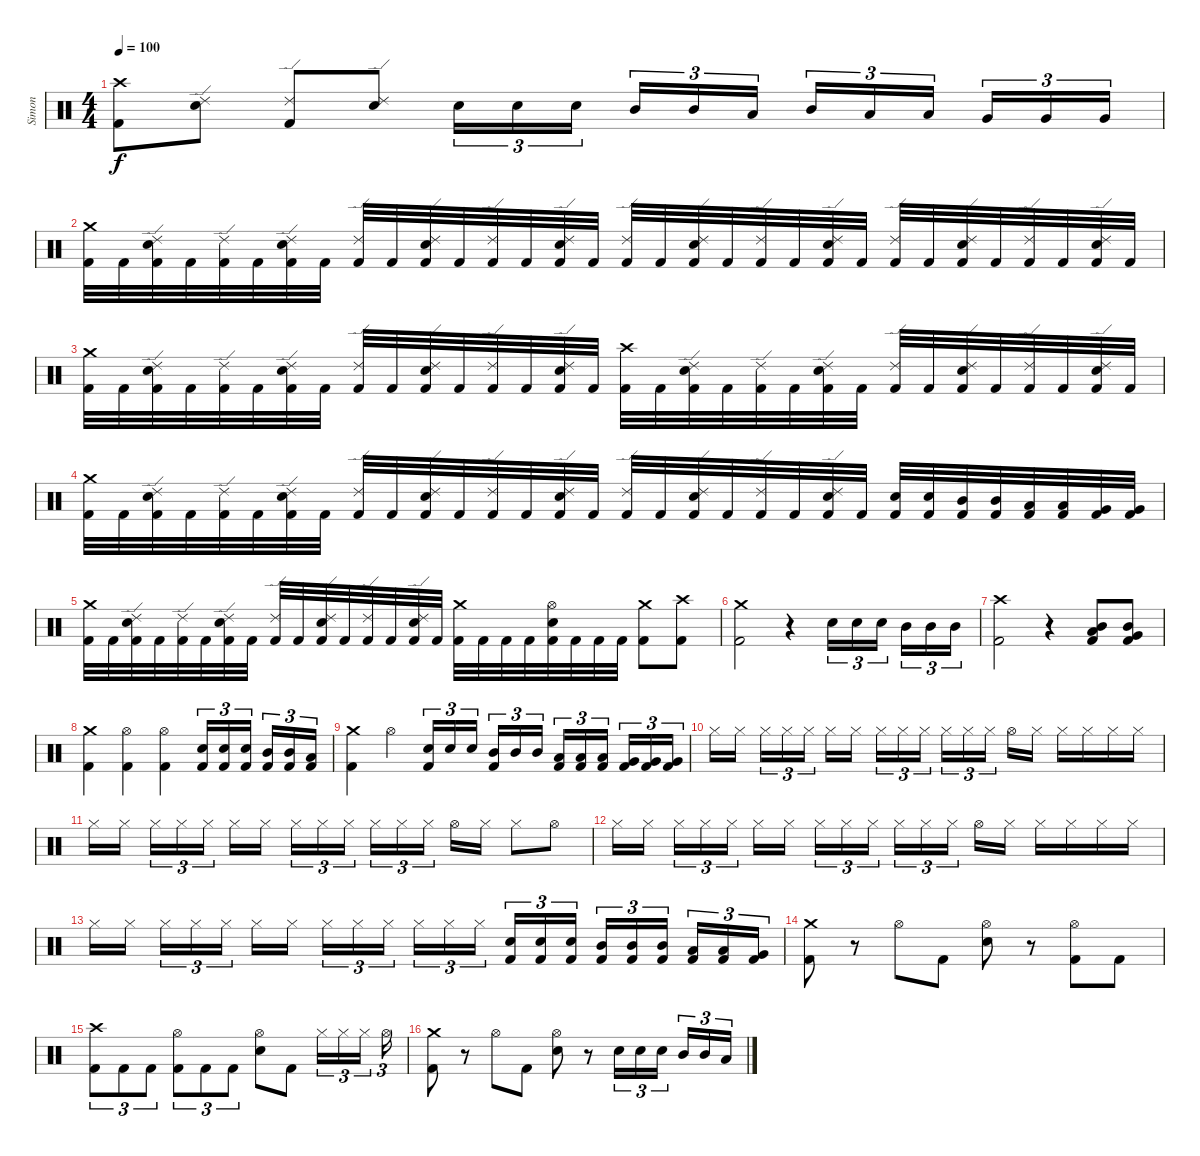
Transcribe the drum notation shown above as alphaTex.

\track ("Simon" "Simon") {instrument percussion}
\staff {score}
\articulation defaults
\ts (4 4)
\tempo 100
\clef neutral
\ks c
("Crash high (hit)" "Kick (hit) 2").8{dy f} ("Ride (edge) 2" "Electric Snare (hit)").8 ("Ride (edge) 2" "Kick (hit) 2").8 ("Ride (edge) 2" "Electric Snare (hit)").8 "Electric Snare (hit)".16{tu (3 2)} "Electric Snare (hit)".16{tu (3 2)} "Electric Snare (hit)".16{tu (3 2) beam splitsecondary} "Mid Tom (hit)".16{tu (3 2)} "Mid Tom (hit)".16{tu (3 2)} "Low Tom (hit)".16{tu (3 2)} "Mid Tom (hit)".16{tu (3 2)} "Low Tom (hit)".16{tu (3 2)} "Low Tom (hit)".16{tu (3 2) beam splitsecondary} "Very Low Tom (hit)".16{tu (3 2)} "Very Low Tom (hit)".16{tu (3 2)} "Very Low Tom (hit)".16{tu (3 2)} |
("Crash medium (hit)" "Kick (hit) 2").32 "Kick (hit) 2".32 ("Ride (edge) 2" "Electric Snare (hit)" "Kick (hit) 2").32 "Kick (hit) 2".32 ("Ride (edge) 2" "Kick (hit) 2").32 "Kick (hit) 2".32 ("Ride (edge) 2" "Electric Snare (hit)" "Kick (hit) 2").32 "Kick (hit) 2".32 ("Ride (edge) 2" "Kick (hit) 2").32 "Kick (hit) 2".32 ("Ride (edge) 2" "Electric Snare (hit)" "Kick (hit) 2").32 "Kick (hit) 2".32 ("Ride (edge) 2" "Kick (hit) 2").32 "Kick (hit) 2".32 ("Ride (edge) 2" "Electric Snare (hit)" "Kick (hit) 2").32 "Kick (hit) 2".32 ("Ride (edge) 2" "Kick (hit) 2").32 "Kick (hit) 2".32 ("Ride (edge) 2" "Electric Snare (hit)" "Kick (hit) 2").32 "Kick (hit) 2".32 ("Ride (edge) 2" "Kick (hit) 2").32 "Kick (hit) 2".32 ("Ride (edge) 2" "Electric Snare (hit)" "Kick (hit) 2").32 "Kick (hit) 2".32 ("Ride (edge) 2" "Kick (hit) 2").32 "Kick (hit) 2".32 ("Ride (edge) 2" "Electric Snare (hit)" "Kick (hit) 2").32 "Kick (hit) 2".32 ("Ride (edge) 2" "Kick (hit) 2").32 "Kick (hit) 2".32 ("Ride (edge) 2" "Electric Snare (hit)" "Kick (hit) 2").32 "Kick (hit) 2".32 |
("Crash medium (hit)" "Kick (hit) 2").32 "Kick (hit) 2".32 ("Ride (edge) 2" "Electric Snare (hit)" "Kick (hit) 2").32 "Kick (hit) 2".32 ("Ride (edge) 2" "Kick (hit) 2").32 "Kick (hit) 2".32 ("Ride (edge) 2" "Electric Snare (hit)" "Kick (hit) 2").32 "Kick (hit) 2".32 ("Ride (edge) 2" "Kick (hit) 2").32 "Kick (hit) 2".32 ("Ride (edge) 2" "Electric Snare (hit)" "Kick (hit) 2").32 "Kick (hit) 2".32 ("Ride (edge) 2" "Kick (hit) 2").32 "Kick (hit) 2".32 ("Ride (edge) 2" "Electric Snare (hit)" "Kick (hit) 2").32 "Kick (hit) 2".32 ("Crash high (hit)" "Kick (hit) 2").32 "Kick (hit) 2".32 ("Ride (edge) 2" "Electric Snare (hit)" "Kick (hit) 2").32 "Kick (hit) 2".32 ("Ride (edge) 2" "Kick (hit) 2").32 "Kick (hit) 2".32 ("Ride (edge) 2" "Electric Snare (hit)" "Kick (hit) 2").32 "Kick (hit) 2".32 ("Ride (edge) 2" "Kick (hit) 2").32 "Kick (hit) 2".32 ("Ride (edge) 2" "Electric Snare (hit)" "Kick (hit) 2").32 "Kick (hit) 2".32 ("Ride (edge) 2" "Kick (hit) 2").32 "Kick (hit) 2".32 ("Ride (edge) 2" "Electric Snare (hit)" "Kick (hit) 2").32 "Kick (hit) 2".32 |
("Crash medium (hit)" "Kick (hit) 2").32 "Kick (hit) 2".32 ("Ride (edge) 2" "Electric Snare (hit)" "Kick (hit) 2").32 "Kick (hit) 2".32 ("Ride (edge) 2" "Kick (hit) 2").32 "Kick (hit) 2".32 ("Ride (edge) 2" "Electric Snare (hit)" "Kick (hit) 2").32 "Kick (hit) 2".32 ("Ride (edge) 2" "Kick (hit) 2").32 "Kick (hit) 2".32 ("Ride (edge) 2" "Electric Snare (hit)" "Kick (hit) 2").32 "Kick (hit) 2".32 ("Ride (edge) 2" "Kick (hit) 2").32 "Kick (hit) 2".32 ("Ride (edge) 2" "Electric Snare (hit)" "Kick (hit) 2").32 "Kick (hit) 2".32 ("Ride (edge) 2" "Kick (hit) 2").32 "Kick (hit) 2".32 ("Ride (edge) 2" "Electric Snare (hit)" "Kick (hit) 2").32 "Kick (hit) 2".32 ("Ride (edge) 2" "Kick (hit) 2").32 "Kick (hit) 2".32 ("Ride (edge) 2" "Electric Snare (hit)" "Kick (hit) 2").32 "Kick (hit) 2".32 ("Electric Snare (hit)" "Kick (hit) 2").32 ("Electric Snare (hit)" "Kick (hit) 2").32 ("Mid Tom (hit)" "Kick (hit) 2").32 ("Mid Tom (hit)" "Kick (hit) 2").32 ("Low Tom (hit)" "Kick (hit) 2").32 ("Low Tom (hit)" "Kick (hit) 2").32 ("Very Low Tom (hit)" "Kick (hit) 2").32 ("Very Low Tom (hit)" "Kick (hit) 2").32 |
("Crash medium (hit)" "Kick (hit) 2").32 "Kick (hit) 2".32 ("Ride (edge) 2" "Electric Snare (hit)" "Kick (hit) 2").32 "Kick (hit) 2".32 ("Ride (edge) 2" "Kick (hit) 2").32 "Kick (hit) 2".32 ("Ride (edge) 2" "Electric Snare (hit)" "Kick (hit) 2").32 "Kick (hit) 2".32 ("Ride (edge) 2" "Kick (hit) 2").32 "Kick (hit) 2".32 ("Ride (edge) 2" "Electric Snare (hit)" "Kick (hit) 2").32 "Kick (hit) 2".32 ("Ride (edge) 2" "Kick (hit) 2").32 "Kick (hit) 2".32 ("Ride (edge) 2" "Electric Snare (hit)" "Kick (hit) 2").32 "Kick (hit) 2".32 ("Crash medium (hit)" "Kick (hit) 2").32 "Kick (hit) 2".32 "Kick (hit) 2".32 "Kick (hit) 2".32 ("Hi-Hat (open)" "Electric Snare (hit)" "Kick (hit) 2").32 "Kick (hit) 2".32 "Kick (hit) 2".32 "Kick (hit) 2".32 ("Crash medium (hit)" "Kick (hit) 2").8 ("Crash high (hit)" "Kick (hit) 2").8 |
("Crash medium (hit)" "Kick (hit) 2").2 r.4 "Electric Snare (hit)".16{tu (3 2)} "Electric Snare (hit)".16{tu (3 2)} "Electric Snare (hit)".16{tu (3 2) beam splitsecondary} "Mid Tom (hit)".16{tu (3 2)} "Mid Tom (hit)".16{tu (3 2)} "Mid Tom (hit)".16{tu (3 2)} |
("Crash high (hit)" "Kick (hit) 2").2 r.4 ("Low Tom (hit)" "Mid Tom (hit)" "Kick (hit) 2").8 ("Very Low Tom (hit)" "Mid Tom (hit)" "Kick (hit) 2").8 |
("Crash medium (hit)" "Kick (hit) 2").4 ("Hi-Hat (open)" "Kick (hit) 2").4 ("Hi-Hat (open)" "Kick (hit) 2").4 ("Electric Snare (hit)" "Kick (hit) 2").16{tu (3 2)} ("Electric Snare (hit)" "Kick (hit) 2").16{tu (3 2)} ("Electric Snare (hit)" "Kick (hit) 2").16{tu (3 2) beam splitsecondary} ("Mid Tom (hit)" "Kick (hit) 2").16{tu (3 2)} ("Mid Tom (hit)" "Kick (hit) 2").16{tu (3 2)} ("Low Tom (hit)" "Kick (hit) 2").16{tu (3 2)} |
("Crash medium (hit)" "Kick (hit) 2").4 "Hi-Hat (open)".4 ("Electric Snare (hit)" "Kick (hit) 2").16{tu (3 2)} "Electric Snare (hit)".16{tu (3 2)} "Electric Snare (hit)".16{tu (3 2) beam splitsecondary} ("Mid Tom (hit)" "Kick (hit) 2").16{tu (3 2)} "Mid Tom (hit)".16{tu (3 2)} "Mid Tom (hit)".16{tu (3 2)} ("Low Tom (hit)" "Kick (hit) 2").16{tu (3 2)} ("Low Tom (hit)" "Kick (hit) 2").16{tu (3 2)} ("Low Tom (hit)" "Kick (hit) 2").16{tu (3 2) beam splitsecondary} ("Very Low Tom (hit)" "Kick (hit) 2").16{tu (3 2)} ("Very Low Tom (hit)" "Kick (hit) 2").16{tu (3 2)} ("Very Low Tom (hit)" "Kick (hit) 2").16{tu (3 2)} |
"Hi-Hat (closed)".16 "Hi-Hat (closed)".16{beam splitsecondary} "Hi-Hat (closed)".16{tu (3 2)} "Hi-Hat (closed)".16{tu (3 2)} "Hi-Hat (closed)".16{tu (3 2)} "Hi-Hat (closed)".16 "Hi-Hat (closed)".16{beam splitsecondary} "Hi-Hat (closed)".16{tu (3 2)} "Hi-Hat (closed)".16{tu (3 2)} "Hi-Hat (closed)".16{tu (3 2)} "Hi-Hat (closed)".16{tu (3 2)} "Hi-Hat (closed)".16{tu (3 2)} "Hi-Hat (closed)".16{tu (3 2) beam splitsecondary} "Hi-Hat (open)".16 "Hi-Hat (closed)".16 "Hi-Hat (closed)".16 "Hi-Hat (closed)".16 "Hi-Hat (closed)".16 "Hi-Hat (closed)".16 |
"Hi-Hat (closed)".16 "Hi-Hat (closed)".16{beam splitsecondary} "Hi-Hat (closed)".16{tu (3 2)} "Hi-Hat (closed)".16{tu (3 2)} "Hi-Hat (closed)".16{tu (3 2)} "Hi-Hat (closed)".16 "Hi-Hat (closed)".16{beam splitsecondary} "Hi-Hat (closed)".16{tu (3 2)} "Hi-Hat (closed)".16{tu (3 2)} "Hi-Hat (closed)".16{tu (3 2)} "Hi-Hat (closed)".16{tu (3 2)} "Hi-Hat (closed)".16{tu (3 2)} "Hi-Hat (closed)".16{tu (3 2) beam splitsecondary} "Hi-Hat (open)".16 "Hi-Hat (closed)".16 "Hi-Hat (closed)".8 "Hi-Hat (open)".8 |
"Hi-Hat (closed)".16 "Hi-Hat (closed)".16{beam splitsecondary} "Hi-Hat (closed)".16{tu (3 2)} "Hi-Hat (closed)".16{tu (3 2)} "Hi-Hat (closed)".16{tu (3 2)} "Hi-Hat (closed)".16 "Hi-Hat (closed)".16{beam splitsecondary} "Hi-Hat (closed)".16{tu (3 2)} "Hi-Hat (closed)".16{tu (3 2)} "Hi-Hat (closed)".16{tu (3 2)} "Hi-Hat (closed)".16{tu (3 2)} "Hi-Hat (closed)".16{tu (3 2)} "Hi-Hat (closed)".16{tu (3 2) beam splitsecondary} "Hi-Hat (open)".16 "Hi-Hat (closed)".16 "Hi-Hat (closed)".16 "Hi-Hat (closed)".16 "Hi-Hat (closed)".16 "Hi-Hat (closed)".16 |
"Hi-Hat (closed)".16 "Hi-Hat (closed)".16{beam splitsecondary} "Hi-Hat (closed)".16{tu (3 2)} "Hi-Hat (closed)".16{tu (3 2)} "Hi-Hat (closed)".16{tu (3 2)} "Hi-Hat (closed)".16 "Hi-Hat (closed)".16{beam splitsecondary} "Hi-Hat (closed)".16{tu (3 2)} "Hi-Hat (closed)".16{tu (3 2)} "Hi-Hat (closed)".16{tu (3 2)} "Hi-Hat (closed)".16{tu (3 2)} "Hi-Hat (closed)".16{tu (3 2)} "Hi-Hat (closed)".16{tu (3 2) beam splitsecondary} ("Electric Snare (hit)" "Kick (hit) 2").16{tu (3 2)} ("Electric Snare (hit)" "Kick (hit) 2").16{tu (3 2)} ("Electric Snare (hit)" "Kick (hit) 2").16{tu (3 2)} ("Mid Tom (hit)" "Kick (hit) 2").16{tu (3 2)} ("Mid Tom (hit)" "Kick (hit) 2").16{tu (3 2)} ("Mid Tom (hit)" "Kick (hit) 2").16{tu (3 2) beam splitsecondary} ("Low Tom (hit)" "Kick (hit) 2").16{tu (3 2)} ("Low Tom (hit)" "Kick (hit) 2").16{tu (3 2)} ("Very Low Tom (hit)" "Kick (hit) 2").16{tu (3 2)} |
("Crash medium (hit)" "Kick (hit) 2").8 r.8 "Hi-Hat (open)".8 "Kick (hit) 2".8 ("Hi-Hat (open)" "Electric Snare (hit)").8 r.8 ("Hi-Hat (open)" "Kick (hit) 2").8 "Kick (hit) 2".8 |
("Crash high (hit)" "Kick (hit) 2").8{tu (3 2)} "Kick (hit) 2".8{tu (3 2)} "Kick (hit) 2".8{tu (3 2)} ("Hi-Hat (open)" "Kick (hit) 2").8{tu (3 2)} "Kick (hit) 2".8{tu (3 2)} "Kick (hit) 2".8{tu (3 2)} ("Hi-Hat (open)" "Electric Snare (hit)").8 "Kick (hit) 2".8 "Hi-Hat (closed)".16{tu (3 2)} "Hi-Hat (closed)".16{tu (3 2)} "Hi-Hat (closed)".16{tu (3 2) beam splitsecondary} "Hi-Hat (open)".16{tu (3 2)} |
("Crash medium (hit)" "Kick (hit) 2").8 r.8 "Hi-Hat (open)".8 "Kick (hit) 2".8 ("Hi-Hat (open)" "Electric Snare (hit)").8 r.8 "Electric Snare (hit)".16{tu (3 2)} "Electric Snare (hit)".16{tu (3 2)} "Electric Snare (hit)".16{tu (3 2) beam splitsecondary} "Mid Tom (hit)".16{tu (3 2)} "Mid Tom (hit)".16{tu (3 2)} "Low Tom (hit)".16{tu (3 2)}
